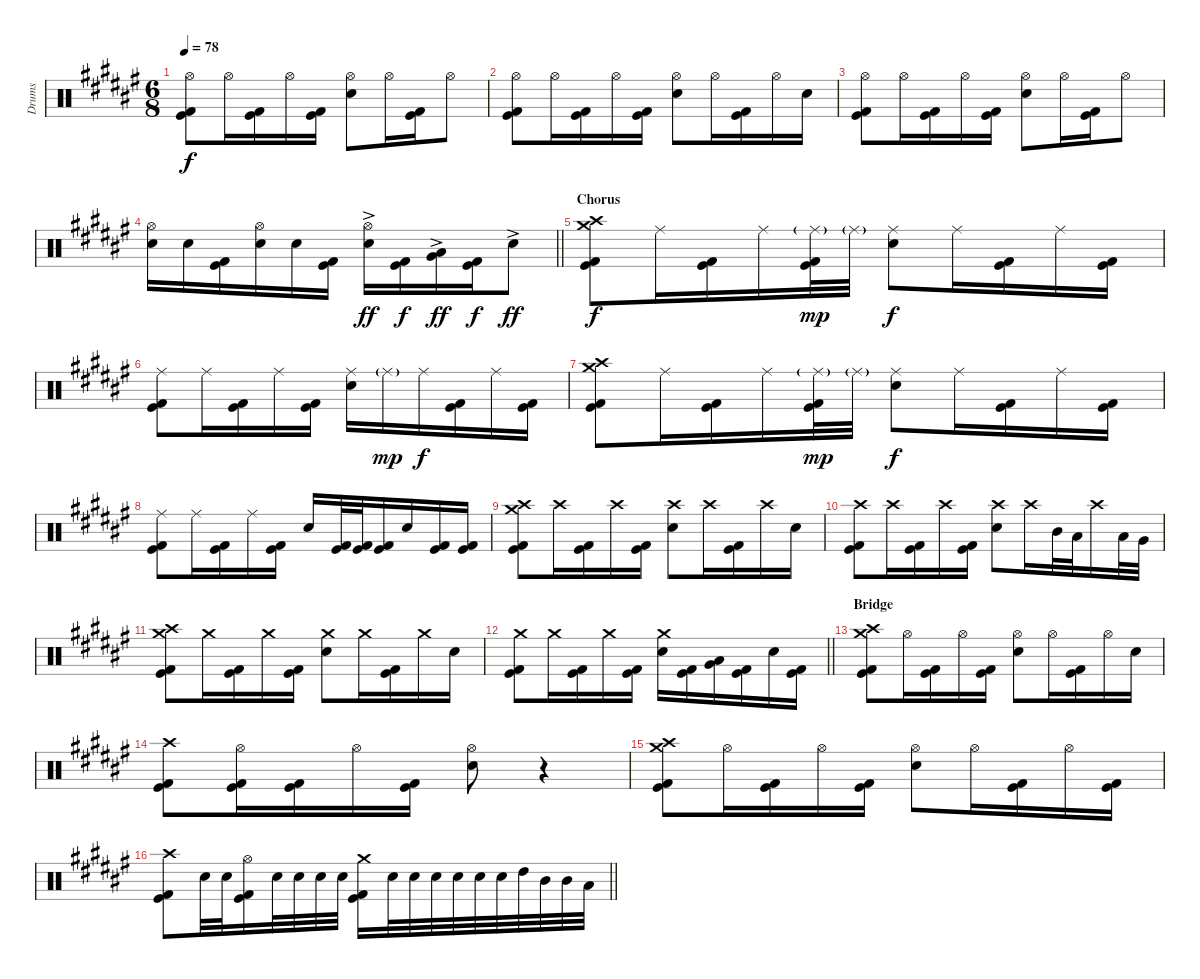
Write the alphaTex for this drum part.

\track ("Drums" "Drums") {instrument percussion}
\staff {score}
\articulation defaults
\ts (6 8)
\tempo 78
\clef neutral
\ks d#minor
("Hi-Hat (open)" "Kick (hit)" "Kick (hit) 2").8{dy f} "Hi-Hat (open)".16 ("Kick (hit)" "Kick (hit) 2").16 "Hi-Hat (open)".16 ("Kick (hit)" "Kick (hit) 2").16 ("Hi-Hat (open)" "Snare (hit) 2").8 "Hi-Hat (open)".16 ("Kick (hit)" "Kick (hit) 2").16 "Hi-Hat (open)".8 |
("Hi-Hat (open)" "Kick (hit)" "Kick (hit) 2").8 "Hi-Hat (open)".16 ("Kick (hit)" "Kick (hit) 2").16 "Hi-Hat (open)".16 ("Kick (hit)" "Kick (hit) 2").16 ("Hi-Hat (open)" "Snare (hit) 2").8 "Hi-Hat (open)".16 ("Kick (hit)" "Kick (hit) 2").16 "Hi-Hat (open)".16 "Snare (hit) 2".16 |
("Hi-Hat (open)" "Kick (hit)" "Kick (hit) 2").8 "Hi-Hat (open)".16 ("Kick (hit)" "Kick (hit) 2").16 "Hi-Hat (open)".16 ("Kick (hit)" "Kick (hit) 2").16 ("Hi-Hat (open)" "Snare (hit) 2").8 "Hi-Hat (open)".16 ("Kick (hit)" "Kick (hit) 2").16 "Hi-Hat (open)".8 |
\barLineRight lightlight
("Hi-Hat (open)" "Snare (hit) 2").16 "Snare (hit) 2".16 ("Kick (hit)" "Kick (hit) 2").16 ("Hi-Hat (open)" "Snare (hit) 2").16 "Snare (hit) 2".16 ("Kick (hit)" "Kick (hit) 2").16 ("Hi-Hat (open)" "Snare (hit) 2"{ac}).16{dy ff} ("Kick (hit)" "Kick (hit) 2").16{dy f} ("Low Tom (hit)"{ac} "Very Low Tom (hit)").16{dy ff} ("Kick (hit)" "Kick (hit) 2").16{dy f} "Snare (hit) 2"{ac}.8{dy ff} |
\section ("" "Chorus")
("Crash medium (hit)" "Crash high (hit)" "Kick (hit)" "Kick (hit) 2").8{dy f} "Ride (middle)".16 ("Kick (hit)" "Kick (hit) 2").16 "Ride (middle)".16 ("Ride (middle)"{g} "Kick (hit)" "Kick (hit) 2").32{dy mp} "Ride (middle)"{g}.32 ("Ride (middle)" "Snare (hit) 2").8{dy f} "Ride (middle)".16 ("Kick (hit)" "Kick (hit) 2").16 "Ride (middle)".16 ("Kick (hit)" "Kick (hit) 2").16 |
("Ride (middle)" "Kick (hit)" "Kick (hit) 2").8 "Ride (middle)".16 ("Kick (hit)" "Kick (hit) 2").16 "Ride (middle)".16 ("Kick (hit)" "Kick (hit) 2").16 ("Ride (middle)" "Snare (hit) 2").16 "Ride (middle)"{g}.16{dy mp} "Ride (middle)".16{dy f} ("Kick (hit)" "Kick (hit) 2").16 "Ride (middle)".16 ("Kick (hit)" "Kick (hit) 2").16 |
("Crash medium (hit)" "Crash high (hit)" "Kick (hit)" "Kick (hit) 2").8 "Ride (middle)".16 ("Kick (hit)" "Kick (hit) 2").16 "Ride (middle)".16 ("Ride (middle)"{g} "Kick (hit)" "Kick (hit) 2").32{dy mp} "Ride (middle)"{g}.32 ("Ride (middle)" "Snare (hit) 2").8{dy f} "Ride (middle)".16 ("Kick (hit)" "Kick (hit) 2").16 "Ride (middle)".16 ("Kick (hit)" "Kick (hit) 2").16 |
("Ride (middle)" "Kick (hit)" "Kick (hit) 2").8 "Ride (middle)".16 ("Kick (hit)" "Kick (hit) 2").16 "Ride (middle)".16 ("Kick (hit)" "Kick (hit) 2").16 "Snare (hit) 2".16 ("Kick (hit)" "Kick (hit) 2").32 ("Kick (hit)" "Kick (hit) 2").32 ("Kick (hit)" "Kick (hit) 2").16 "Snare (hit) 2".16 ("Kick (hit)" "Kick (hit) 2").16 ("Kick (hit)" "Kick (hit) 2").16 |
("Crash medium (hit)" "Crash high (hit)" "Kick (hit)" "Kick (hit) 2").8 "Crash high (hit)".16 ("Kick (hit)" "Kick (hit) 2").16 "Crash high (hit)".16 ("Kick (hit)" "Kick (hit) 2").16 ("Crash high (hit)" "Snare (hit) 2").8 "Crash high (hit)".16 ("Kick (hit)" "Kick (hit) 2").16 "Crash high (hit)".16 "Snare (hit) 2".16 |
("Crash high (hit)" "Kick (hit)" "Kick (hit) 2").8 "Crash high (hit)".16 ("Kick (hit)" "Kick (hit) 2").16 "Crash high (hit)".16 ("Kick (hit)" "Kick (hit) 2").16 ("Crash high (hit)" "Snare (hit) 2").8 "Crash high (hit)".16 "Mid Tom (hit)".32 "Low Tom (hit)".32 "Crash high (hit)".16 "Low Tom (hit)".32 "Very Low Tom (hit)".32 |
("Crash medium (hit)" "Crash high (hit)" "Kick (hit)" "Kick (hit) 2").8 "Crash medium (hit)".16 ("Kick (hit)" "Kick (hit) 2").16 "Crash medium (hit)".16 ("Kick (hit)" "Kick (hit) 2").16 ("Crash medium (hit)" "Snare (hit) 2").8 "Crash medium (hit)".16 ("Kick (hit)" "Kick (hit) 2").16 "Crash medium (hit)".16 "Snare (hit) 2".16 |
\barLineRight lightlight
("Crash medium (hit)" "Kick (hit)" "Kick (hit) 2").8 "Crash medium (hit)".16 ("Kick (hit)" "Kick (hit) 2").16 "Crash medium (hit)".16 ("Kick (hit)" "Kick (hit) 2").16 ("Crash medium (hit)" "Snare (hit) 2").16 ("Kick (hit)" "Kick (hit) 2").16 ("Low Tom (hit)" "Very Low Tom (hit)").16 ("Kick (hit)" "Kick (hit) 2").16 "Snare (hit) 2".16 ("Kick (hit)" "Kick (hit) 2").16 |
\section ("" "Bridge")
("Crash medium (hit)" "Crash high (hit)" "Kick (hit)" "Kick (hit) 2").8 "Hi-Hat (open)".16 ("Kick (hit)" "Kick (hit) 2").16 "Hi-Hat (open)".16 ("Kick (hit)" "Kick (hit) 2").16 ("Hi-Hat (open)" "Snare (hit) 2").8 "Hi-Hat (open)".16 ("Kick (hit)" "Kick (hit) 2").16 "Hi-Hat (open)".16 "Snare (hit) 2".16 |
("Crash high (hit)" "Kick (hit)" "Kick (hit) 2").8 ("Hi-Hat (open)" "Kick (hit)" "Kick (hit) 2").16 ("Kick (hit)" "Kick (hit) 2").16 "Hi-Hat (open)".16 ("Kick (hit)" "Kick (hit) 2").16 ("Hi-Hat (open)" "Snare (hit) 2").8 r.4 |
("Crash medium (hit)" "Crash high (hit)" "Kick (hit)" "Kick (hit) 2").8 "Hi-Hat (open)".16 ("Kick (hit)" "Kick (hit) 2").16 "Hi-Hat (open)".16 ("Kick (hit)" "Kick (hit) 2").16 ("Hi-Hat (open)" "Snare (hit) 2").8 "Hi-Hat (open)".16 ("Kick (hit)" "Kick (hit) 2").16 "Hi-Hat (open)".16 ("Kick (hit)" "Kick (hit) 2").16 |
\barLineRight lightlight
("Crash high (hit)" "Kick (hit)" "Kick (hit) 2").8 "Snare (hit) 2".32 "Snare (hit) 2".32 ("Hi-Hat (open)" "Kick (hit)" "Kick (hit) 2").16 "Snare (hit) 2".32 "Snare (hit) 2".32 "Snare (hit) 2".32 "Snare (hit) 2".32 ("Crash medium (hit)" "Kick (hit)" "Kick (hit) 2").16 "Snare (hit) 2".32 "Snare (hit) 2".32 "Snare (hit) 2".32 "Snare (hit) 2".32 "Snare (hit) 2".32 "Snare (hit) 2".32 "High Tom (hit)".32 "Mid Tom (hit)".32 "Mid Tom (hit)".32 "Low Tom (hit)".32
